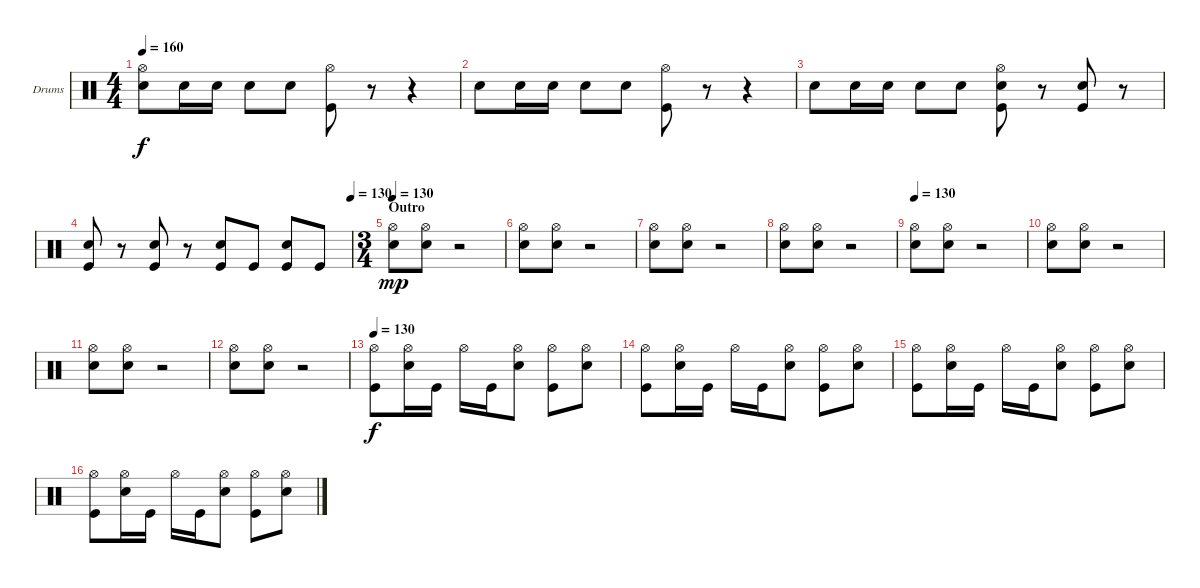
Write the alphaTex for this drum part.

\bracketExtendMode groupsimilarinstruments
\firstSystemTrackNameOrientation horizontal
\otherSystemsTrackNameOrientation horizontal
\track ("Lars Ulrich (Drum)" "Drums") {instrument percussion}
\staff {score}
\articulation defaults
\ts (4 4)
\tempo 160
\clef neutral
\ks c
("Hi-Hat (open)" "Snare (hit) 2").8{dy f} "Snare (hit) 2".16 "Snare (hit) 2".16 "Snare (hit) 2".8 "Snare (hit) 2".8 ("Hi-Hat (open)" "Kick (hit)").8 r.8 r.4 |
"Snare (hit) 2".8 "Snare (hit) 2".16 "Snare (hit) 2".16 "Snare (hit) 2".8 "Snare (hit) 2".8 ("Hi-Hat (open)" "Kick (hit)").8 r.8 r.4 |
"Snare (hit) 2".8 "Snare (hit) 2".16 "Snare (hit) 2".16 "Snare (hit) 2".8 "Snare (hit) 2".8 ("Hi-Hat (open)" "Snare (hit) 2" "Kick (hit)").8 r.8 ("Snare (hit) 2" "Kick (hit)").8 r.8 |
\tempo (130 1)
("Snare (hit) 2" "Kick (hit)").8 r.8 ("Snare (hit) 2" "Kick (hit)").8 r.8 ("Snare (hit) 2" "Kick (hit)").8 "Kick (hit)".8 ("Snare (hit) 2" "Kick (hit)").8 "Kick (hit)".8 |
\ts (3 4)
\section ("" "Outro")
\tempo 130
("Hi-Hat (open)" "Snare (hit) 2").8{dy mp} ("Hi-Hat (open)" "Snare (hit) 2").8 r.2 |
("Hi-Hat (open)" "Snare (hit) 2").8 ("Hi-Hat (open)" "Snare (hit) 2").8 r.2 |
("Hi-Hat (open)" "Snare (hit) 2").8 ("Hi-Hat (open)" "Snare (hit) 2").8 r.2 |
("Hi-Hat (open)" "Snare (hit) 2").8 ("Hi-Hat (open)" "Snare (hit) 2").8 r.2 |
\tempo 130
("Hi-Hat (open)" "Snare (hit) 2").8 ("Hi-Hat (open)" "Snare (hit) 2").8 r.2 |
("Hi-Hat (open)" "Snare (hit) 2").8 ("Hi-Hat (open)" "Snare (hit) 2").8 r.2 |
("Hi-Hat (open)" "Snare (hit) 2").8 ("Hi-Hat (open)" "Snare (hit) 2").8 r.2 |
("Hi-Hat (open)" "Snare (hit) 2").8 ("Hi-Hat (open)" "Snare (hit) 2").8 r.2 |
\tempo 130
("Hi-Hat (open)" "Kick (hit)").8{dy f} ("Hi-Hat (open)" "Snare (hit) 2").16 "Kick (hit)".16 "Hi-Hat (open)".16 "Kick (hit)".16 ("Hi-Hat (open)" "Snare (hit) 2").8 ("Hi-Hat (open)" "Kick (hit)").8 ("Hi-Hat (open)" "Snare (hit) 2").8 |
("Hi-Hat (open)" "Kick (hit)").8 ("Hi-Hat (open)" "Snare (hit) 2").16 "Kick (hit)".16 "Hi-Hat (open)".16 "Kick (hit)".16 ("Hi-Hat (open)" "Snare (hit) 2").8 ("Hi-Hat (open)" "Kick (hit)").8 ("Hi-Hat (open)" "Snare (hit) 2").8 |
("Hi-Hat (open)" "Kick (hit)").8 ("Hi-Hat (open)" "Snare (hit) 2").16 "Kick (hit)".16 "Hi-Hat (open)".16 "Kick (hit)".16 ("Hi-Hat (open)" "Snare (hit) 2").8 ("Hi-Hat (open)" "Kick (hit)").8 ("Hi-Hat (open)" "Snare (hit) 2").8 |
("Hi-Hat (open)" "Kick (hit)").8 ("Hi-Hat (open)" "Snare (hit) 2").16 "Kick (hit)".16 "Hi-Hat (open)".16 "Kick (hit)".16 ("Hi-Hat (open)" "Snare (hit) 2").8 ("Hi-Hat (open)" "Kick (hit)").8 ("Hi-Hat (open)" "Snare (hit) 2").8
